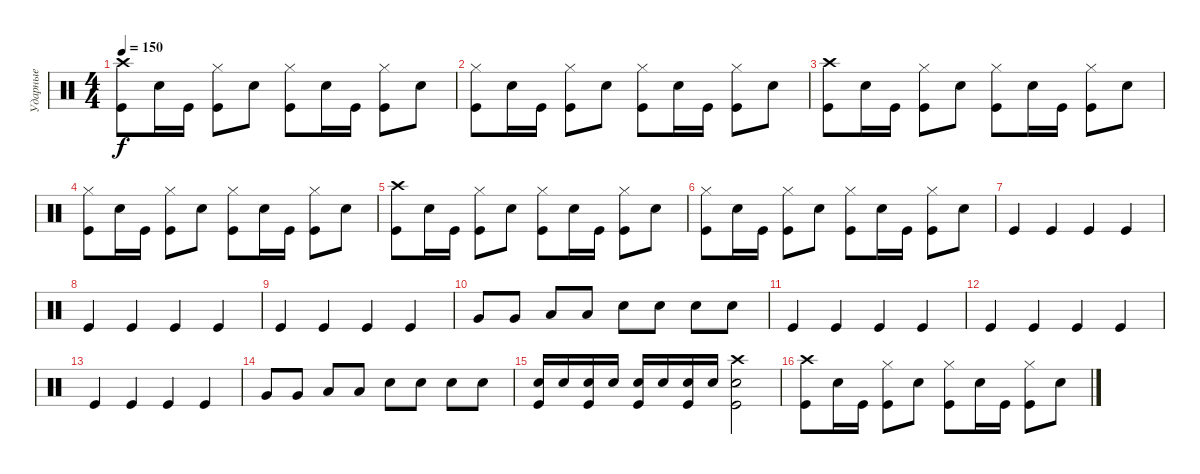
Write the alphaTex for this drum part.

\track ("Ударные" "Ударные") {instrument percussion}
\staff {score}
\articulation defaults
\ts (4 4)
\tempo 150
\clef neutral
\ks c
("Crash high (hit)" "Kick (hit)").8{dy f} "Snare (hit) 2".16 "Kick (hit)".16 ("Hi-Hat (closed)" "Kick (hit)").8 "Snare (hit) 2".8 ("Hi-Hat (closed)" "Kick (hit)").8 "Snare (hit) 2".16 "Kick (hit)".16 ("Hi-Hat (closed)" "Kick (hit)").8 "Snare (hit) 2".8 |
("Hi-Hat (closed)" "Kick (hit)").8 "Snare (hit) 2".16 "Kick (hit)".16 ("Hi-Hat (closed)" "Kick (hit)").8 "Snare (hit) 2".8 ("Hi-Hat (closed)" "Kick (hit)").8 "Snare (hit) 2".16 "Kick (hit)".16 ("Hi-Hat (closed)" "Kick (hit)").8 "Snare (hit) 2".8 |
("Crash high (hit)" "Kick (hit)").8 "Snare (hit) 2".16 "Kick (hit)".16 ("Hi-Hat (closed)" "Kick (hit)").8 "Snare (hit) 2".8 ("Hi-Hat (closed)" "Kick (hit)").8 "Snare (hit) 2".16 "Kick (hit)".16 ("Hi-Hat (closed)" "Kick (hit)").8 "Snare (hit) 2".8 |
("Hi-Hat (closed)" "Kick (hit)").8 "Snare (hit) 2".16 "Kick (hit)".16 ("Hi-Hat (closed)" "Kick (hit)").8 "Snare (hit) 2".8 ("Hi-Hat (closed)" "Kick (hit)").8 "Snare (hit) 2".16 "Kick (hit)".16 ("Hi-Hat (closed)" "Kick (hit)").8 "Snare (hit) 2".8 |
("Crash high (hit)" "Kick (hit)").8 "Snare (hit) 2".16 "Kick (hit)".16 ("Hi-Hat (closed)" "Kick (hit)").8 "Snare (hit) 2".8 ("Hi-Hat (closed)" "Kick (hit)").8 "Snare (hit) 2".16 "Kick (hit)".16 ("Hi-Hat (closed)" "Kick (hit)").8 "Snare (hit) 2".8 |
("Hi-Hat (closed)" "Kick (hit)").8 "Snare (hit) 2".16 "Kick (hit)".16 ("Hi-Hat (closed)" "Kick (hit)").8 "Snare (hit) 2".8 ("Hi-Hat (closed)" "Kick (hit)").8 "Snare (hit) 2".16 "Kick (hit)".16 ("Hi-Hat (closed)" "Kick (hit)").8 "Snare (hit) 2".8 |
"Kick (hit)".4 "Kick (hit)".4 "Kick (hit)".4 "Kick (hit)".4 |
"Kick (hit)".4 "Kick (hit)".4 "Kick (hit)".4 "Kick (hit)".4 |
"Kick (hit)".4 "Kick (hit)".4 "Kick (hit)".4 "Kick (hit)".4 |
"Very Low Tom (hit)".8 "Very Low Tom (hit)".8 "Low Floor Tom (hit)".8 "Low Floor Tom (hit)".8 "Electric Snare (hit)".8 "Electric Snare (hit)".8 "Electric Snare (hit)".8 "Electric Snare (hit)".8 |
"Kick (hit)".4 "Kick (hit)".4 "Kick (hit)".4 "Kick (hit)".4 |
"Kick (hit)".4 "Kick (hit)".4 "Kick (hit)".4 "Kick (hit)".4 |
"Kick (hit)".4 "Kick (hit)".4 "Kick (hit)".4 "Kick (hit)".4 |
"Very Low Tom (hit)".8 "Very Low Tom (hit)".8 "Low Floor Tom (hit)".8 "Low Floor Tom (hit)".8 "Electric Snare (hit)".8 "Electric Snare (hit)".8 "Electric Snare (hit)".8 "Electric Snare (hit)".8 |
("Electric Snare (hit)" "Kick (hit)").16 "Electric Snare (hit)".16 ("Electric Snare (hit)" "Kick (hit)").16 "Electric Snare (hit)".16 ("Electric Snare (hit)" "Kick (hit)").16 "Electric Snare (hit)".16 ("Electric Snare (hit)" "Kick (hit)").16 "Electric Snare (hit)".16 ("Crash high (hit)" "Kick (hit)" "Electric Snare (hit)").2 |
("Crash high (hit)" "Kick (hit)").8 "Snare (hit) 2".16 "Kick (hit)".16 ("Hi-Hat (closed)" "Kick (hit)").8 "Snare (hit) 2".8 ("Hi-Hat (closed)" "Kick (hit)").8 "Snare (hit) 2".16 "Kick (hit)".16 ("Hi-Hat (closed)" "Kick (hit)").8 "Snare (hit) 2".8
